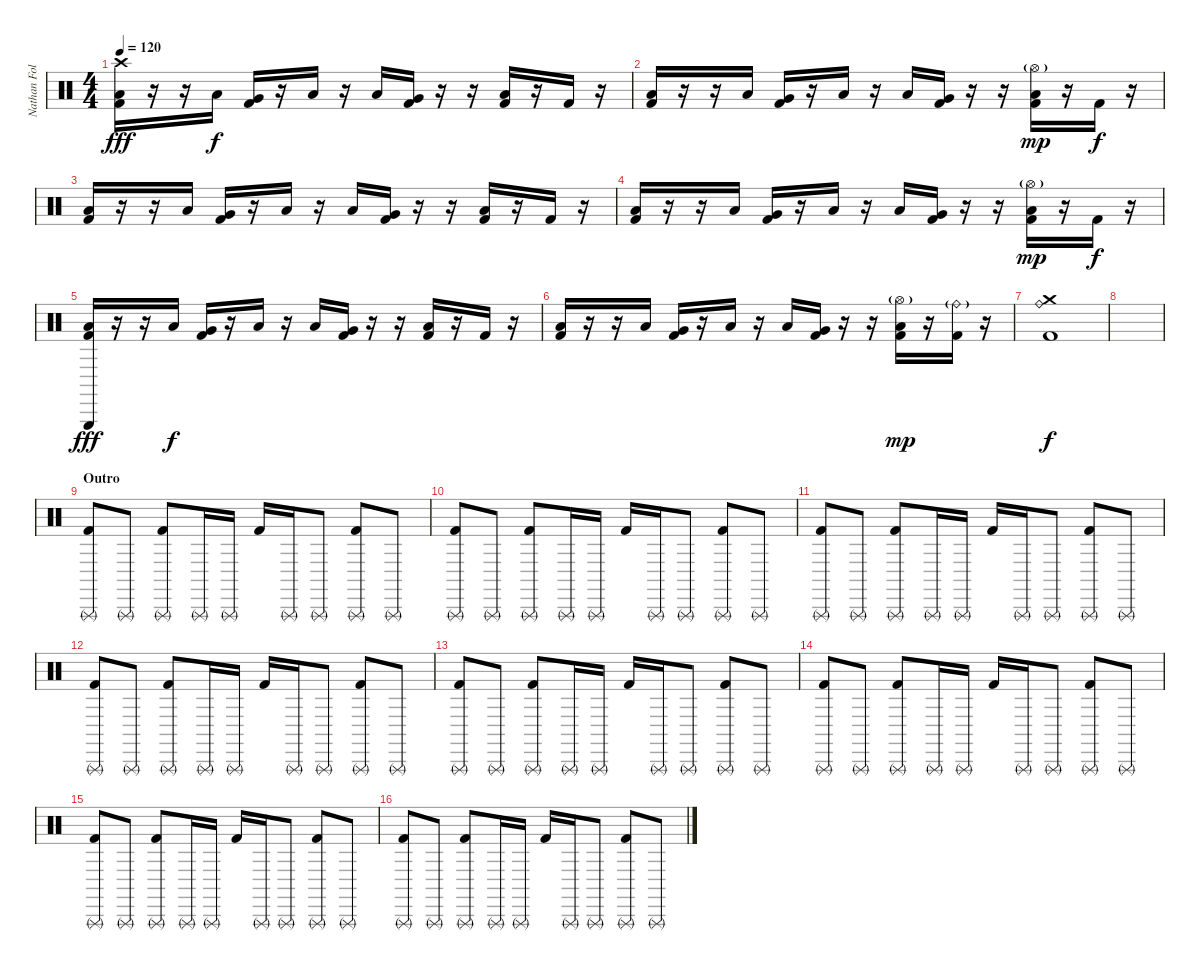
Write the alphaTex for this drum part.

\track ("Nathan Followill - Drums" "Nathan Fol") {instrument percussion}
\staff {score}
\articulation defaults
\ts (4 4)
\tempo 120
\clef neutral
\ks c
("Crash high (hit)" "Low Tom (hit)" "Kick (hit) 2").16{dy fff} r.16 r.16 "Low Tom (hit)".16{dy f} ("Very Low Tom (hit)" "Kick (hit) 2").16 r.16 "Low Tom (hit)".16 r.16 "Low Tom (hit)".16 ("Very Low Tom (hit)" "Kick (hit) 2").16 r.16 r.16 ("Low Tom (hit)" "Kick (hit) 2").16 r.16 "Kick (hit) 2".16 r.16 |
("Low Tom (hit)" "Kick (hit) 2").16 r.16 r.16 "Low Tom (hit)".16 ("Very Low Tom (hit)" "Kick (hit) 2").16 r.16 "Low Tom (hit)".16 r.16 "Low Tom (hit)".16 ("Very Low Tom (hit)" "Kick (hit) 2").16 r.16 r.16 ("Hi-Hat (open)"{g} "Low Tom (hit)" "Kick (hit) 2").16{dy mp} r.16 "Kick (hit) 2".16{dy f} r.16 |
("Low Tom (hit)" "Kick (hit) 2").16 r.16 r.16 "Low Tom (hit)".16 ("Very Low Tom (hit)" "Kick (hit) 2").16 r.16 "Low Tom (hit)".16 r.16 "Low Tom (hit)".16 ("Very Low Tom (hit)" "Kick (hit) 2").16 r.16 r.16 ("Low Tom (hit)" "Kick (hit) 2").16 r.16 "Kick (hit) 2".16 r.16 |
("Low Tom (hit)" "Kick (hit) 2").16 r.16 r.16 "Low Tom (hit)".16 ("Very Low Tom (hit)" "Kick (hit) 2").16 r.16 "Low Tom (hit)".16 r.16 "Low Tom (hit)".16 ("Very Low Tom (hit)" "Kick (hit) 2").16 r.16 r.16 ("Hi-Hat (open)"{g} "Low Tom (hit)" "Kick (hit) 2").16{dy mp} r.16 "Kick (hit) 2".16{dy f} r.16 |
("Triangle (hit)" "Low Tom (hit)" "Kick (hit) 2").16{dy fff} r.16 r.16 "Low Tom (hit)".16{dy f} ("Very Low Tom (hit)" "Kick (hit) 2").16 r.16 "Low Tom (hit)".16 r.16 "Low Tom (hit)".16 ("Very Low Tom (hit)" "Kick (hit) 2").16 r.16 r.16 ("Low Tom (hit)" "Kick (hit) 2").16 r.16 "Kick (hit) 2".16 r.16 |
("Low Tom (hit)" "Kick (hit) 2").16 r.16 r.16 "Low Tom (hit)".16 ("Very Low Tom (hit)" "Kick (hit) 2").16 r.16 "Low Tom (hit)".16 r.16 "Low Tom (hit)".16 ("Very Low Tom (hit)" "Kick (hit) 2").16 r.16 r.16 ("Hi-Hat (open)"{g} "Low Tom (hit)" "Kick (hit) 2").16{dy mp} r.16 ("Ride (bell)"{g} "Kick (hit) 2").16 r.16 |
("Ride (bell)" "Crash medium (hit)" "Kick (hit) 2").1{dy f} |
|
\section ("" "Outro")
("Triangle (rnute)" "Kick (hit) 2").8 "Triangle (rnute)".8 ("Triangle (rnute)" "Kick (hit) 2").8 "Triangle (rnute)".16 "Triangle (rnute)".16 "Kick (hit) 2".16 "Triangle (rnute)".16 "Triangle (rnute)".8 ("Triangle (rnute)" "Kick (hit) 2").8 "Triangle (rnute)".8 |
("Triangle (rnute)" "Kick (hit) 2").8 "Triangle (rnute)".8 ("Triangle (rnute)" "Kick (hit) 2").8 "Triangle (rnute)".16 "Triangle (rnute)".16 "Kick (hit) 2".16 "Triangle (rnute)".16 "Triangle (rnute)".8 ("Triangle (rnute)" "Kick (hit) 2").8 "Triangle (rnute)".8 |
("Triangle (rnute)" "Kick (hit) 2").8 "Triangle (rnute)".8 ("Triangle (rnute)" "Kick (hit) 2").8 "Triangle (rnute)".16 "Triangle (rnute)".16 "Kick (hit) 2".16 "Triangle (rnute)".16 "Triangle (rnute)".8 ("Triangle (rnute)" "Kick (hit) 2").8 "Triangle (rnute)".8 |
("Triangle (rnute)" "Kick (hit) 2").8 "Triangle (rnute)".8 ("Triangle (rnute)" "Kick (hit) 2").8 "Triangle (rnute)".16 "Triangle (rnute)".16 "Kick (hit) 2".16 "Triangle (rnute)".16 "Triangle (rnute)".8 ("Triangle (rnute)" "Kick (hit) 2").8 "Triangle (rnute)".8 |
("Triangle (rnute)" "Kick (hit) 2").8 "Triangle (rnute)".8 ("Triangle (rnute)" "Kick (hit) 2").8 "Triangle (rnute)".16 "Triangle (rnute)".16 "Kick (hit) 2".16 "Triangle (rnute)".16 "Triangle (rnute)".8 ("Triangle (rnute)" "Kick (hit) 2").8 "Triangle (rnute)".8 |
("Triangle (rnute)" "Kick (hit) 2").8 "Triangle (rnute)".8 ("Triangle (rnute)" "Kick (hit) 2").8 "Triangle (rnute)".16 "Triangle (rnute)".16 "Kick (hit) 2".16 "Triangle (rnute)".16 "Triangle (rnute)".8 ("Triangle (rnute)" "Kick (hit) 2").8 "Triangle (rnute)".8 |
("Triangle (rnute)" "Kick (hit) 2").8 "Triangle (rnute)".8 ("Triangle (rnute)" "Kick (hit) 2").8 "Triangle (rnute)".16 "Triangle (rnute)".16 "Kick (hit) 2".16 "Triangle (rnute)".16 "Triangle (rnute)".8 ("Triangle (rnute)" "Kick (hit) 2").8 "Triangle (rnute)".8 |
("Triangle (rnute)" "Kick (hit) 2").8 "Triangle (rnute)".8 ("Triangle (rnute)" "Kick (hit) 2").8 "Triangle (rnute)".16 "Triangle (rnute)".16 "Kick (hit) 2".16 "Triangle (rnute)".16 "Triangle (rnute)".8 ("Triangle (rnute)" "Kick (hit) 2").8 "Triangle (rnute)".8
